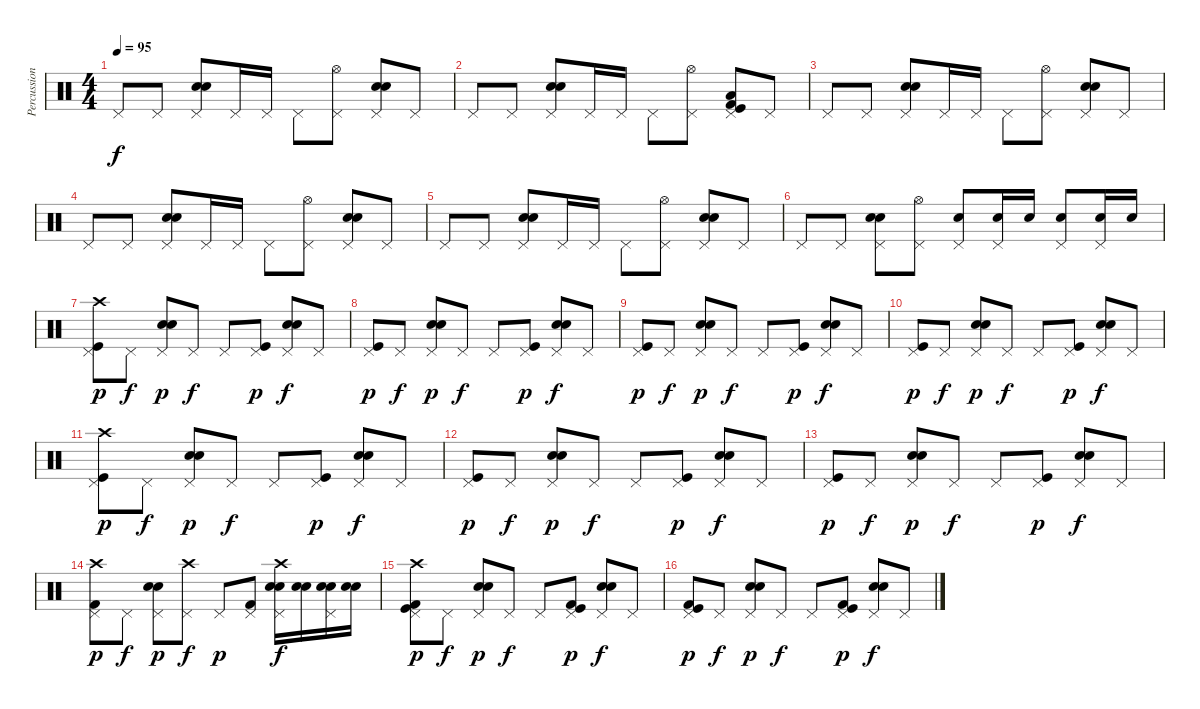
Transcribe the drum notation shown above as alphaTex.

\track ("Percussion (1)" "Percussion") {instrument percussion}
\staff {score}
\articulation defaults
\ts (4 4)
\tempo 95
\clef neutral
\ks c "Pedal Hi-Hat (hit)".8{dy f} "Pedal Hi-Hat (hit)".8
("Pedal Hi-Hat (hit)" "Snare (hit) 2" "Electric Snare (hit)").8 "Pedal Hi-Hat (hit)".16 "Pedal Hi-Hat (hit)".16 "Pedal Hi-Hat (hit)".8 ("Pedal Hi-Hat (hit)" "Hi-Hat (open)").8 ("Pedal Hi-Hat (hit)" "Snare (hit) 2" "Electric Snare (hit)").8 "Pedal Hi-Hat (hit)".8 |
"Pedal Hi-Hat (hit)".8 "Pedal Hi-Hat (hit)".8 ("Pedal Hi-Hat (hit)" "Snare (hit) 2" "Electric Snare (hit)").8 "Pedal Hi-Hat (hit)".16 "Pedal Hi-Hat (hit)".16 "Pedal Hi-Hat (hit)".8 ("Pedal Hi-Hat (hit)" "Hi-Hat (open)").8 ("Pedal Hi-Hat (hit)" "Kick (hit) 2" "Kick (hit)" "Low Floor Tom (hit)").8 "Pedal Hi-Hat (hit)".8 |
"Pedal Hi-Hat (hit)".8 "Pedal Hi-Hat (hit)".8 ("Pedal Hi-Hat (hit)" "Snare (hit) 2" "Electric Snare (hit)").8 "Pedal Hi-Hat (hit)".16 "Pedal Hi-Hat (hit)".16 "Pedal Hi-Hat (hit)".8 ("Pedal Hi-Hat (hit)" "Hi-Hat (open)").8 ("Pedal Hi-Hat (hit)" "Snare (hit) 2" "Electric Snare (hit)").8 "Pedal Hi-Hat (hit)".8 |
"Pedal Hi-Hat (hit)".8 "Pedal Hi-Hat (hit)".8 ("Pedal Hi-Hat (hit)" "Snare (hit) 2" "Electric Snare (hit)").8 "Pedal Hi-Hat (hit)".16 "Pedal Hi-Hat (hit)".16 "Pedal Hi-Hat (hit)".8 ("Pedal Hi-Hat (hit)" "Hi-Hat (open)").8 ("Pedal Hi-Hat (hit)" "Snare (hit) 2" "Electric Snare (hit)").8 "Pedal Hi-Hat (hit)".8 |
"Pedal Hi-Hat (hit)".8 "Pedal Hi-Hat (hit)".8 ("Pedal Hi-Hat (hit)" "Snare (hit) 2" "Electric Snare (hit)").8 "Pedal Hi-Hat (hit)".16 "Pedal Hi-Hat (hit)".16 "Pedal Hi-Hat (hit)".8 ("Pedal Hi-Hat (hit)" "Hi-Hat (open)").8 ("Pedal Hi-Hat (hit)" "Snare (hit) 2" "Electric Snare (hit)").8 "Pedal Hi-Hat (hit)".8 |
"Pedal Hi-Hat (hit)".8 "Pedal Hi-Hat (hit)".8 ("Pedal Hi-Hat (hit)" "Snare (hit) 2" "Electric Snare (hit)").8 ("Pedal Hi-Hat (hit)" "Hi-Hat (open)").8 ("Pedal Hi-Hat (hit)" "Electric Snare (hit)").8 ("Pedal Hi-Hat (hit)" "Snare (hit) 2").16 "Electric Snare (hit)".16 ("Pedal Hi-Hat (hit)" "Electric Snare (hit)").8 ("Pedal Hi-Hat (hit)" "Snare (hit) 2").16 "Snare (hit) 2".16 |
("Pedal Hi-Hat (hit)" "Kick (hit)" "Crash high (hit)").8{dy p} "Pedal Hi-Hat (hit)".8{dy f} ("Pedal Hi-Hat (hit)" "Snare (hit) 2" "Electric Snare (hit)").8{dy p} "Pedal Hi-Hat (hit)".8{dy f} "Pedal Hi-Hat (hit)".8 ("Pedal Hi-Hat (hit)" "Kick (hit)").8{dy p} ("Pedal Hi-Hat (hit)" "Snare (hit) 2" "Electric Snare (hit)").8{dy f} "Pedal Hi-Hat (hit)".8 |
("Pedal Hi-Hat (hit)" "Kick (hit)").8{dy p} "Pedal Hi-Hat (hit)".8{dy f} ("Pedal Hi-Hat (hit)" "Snare (hit) 2" "Electric Snare (hit)").8{dy p} "Pedal Hi-Hat (hit)".8{dy f} "Pedal Hi-Hat (hit)".8 ("Pedal Hi-Hat (hit)" "Kick (hit)").8{dy p} ("Pedal Hi-Hat (hit)" "Snare (hit) 2" "Electric Snare (hit)").8{dy f} "Pedal Hi-Hat (hit)".8 |
("Pedal Hi-Hat (hit)" "Kick (hit)").8{dy p} "Pedal Hi-Hat (hit)".8{dy f} ("Pedal Hi-Hat (hit)" "Snare (hit) 2" "Electric Snare (hit)").8{dy p} "Pedal Hi-Hat (hit)".8{dy f} "Pedal Hi-Hat (hit)".8 ("Pedal Hi-Hat (hit)" "Kick (hit)").8{dy p} ("Pedal Hi-Hat (hit)" "Snare (hit) 2" "Electric Snare (hit)").8{dy f} "Pedal Hi-Hat (hit)".8 |
("Pedal Hi-Hat (hit)" "Kick (hit)").8{dy p} "Pedal Hi-Hat (hit)".8{dy f} ("Pedal Hi-Hat (hit)" "Snare (hit) 2" "Electric Snare (hit)").8{dy p} "Pedal Hi-Hat (hit)".8{dy f} "Pedal Hi-Hat (hit)".8 ("Pedal Hi-Hat (hit)" "Kick (hit)").8{dy p} ("Pedal Hi-Hat (hit)" "Snare (hit) 2" "Electric Snare (hit)").8{dy f} "Pedal Hi-Hat (hit)".8 |
("Pedal Hi-Hat (hit)" "Kick (hit)" "Crash high (hit)").8{dy p} "Pedal Hi-Hat (hit)".8{dy f} ("Pedal Hi-Hat (hit)" "Snare (hit) 2" "Electric Snare (hit)").8{dy p} "Pedal Hi-Hat (hit)".8{dy f} "Pedal Hi-Hat (hit)".8 ("Pedal Hi-Hat (hit)" "Kick (hit)").8{dy p} ("Pedal Hi-Hat (hit)" "Snare (hit) 2" "Electric Snare (hit)").8{dy f} "Pedal Hi-Hat (hit)".8 |
("Pedal Hi-Hat (hit)" "Kick (hit)").8{dy p} "Pedal Hi-Hat (hit)".8{dy f} ("Pedal Hi-Hat (hit)" "Snare (hit) 2" "Electric Snare (hit)").8{dy p} "Pedal Hi-Hat (hit)".8{dy f} "Pedal Hi-Hat (hit)".8 ("Pedal Hi-Hat (hit)" "Kick (hit)").8{dy p} ("Pedal Hi-Hat (hit)" "Snare (hit) 2" "Electric Snare (hit)").8{dy f} "Pedal Hi-Hat (hit)".8 |
("Pedal Hi-Hat (hit)" "Kick (hit)").8{dy p} "Pedal Hi-Hat (hit)".8{dy f} ("Pedal Hi-Hat (hit)" "Snare (hit) 2" "Electric Snare (hit)").8{dy p} "Pedal Hi-Hat (hit)".8{dy f} "Pedal Hi-Hat (hit)".8 ("Pedal Hi-Hat (hit)" "Kick (hit)").8{dy p} ("Pedal Hi-Hat (hit)" "Snare (hit) 2" "Electric Snare (hit)").8{dy f} "Pedal Hi-Hat (hit)".8 |
("Pedal Hi-Hat (hit)" "Kick (hit) 2" "Crash high (hit)").8{dy p} "Pedal Hi-Hat (hit)".8{dy f} ("Pedal Hi-Hat (hit)" "Snare (hit) 2" "Electric Snare (hit)").8{dy p} ("Pedal Hi-Hat (hit)" "Crash high (hit)").8{dy f} "Pedal Hi-Hat (hit)".8{dy p} ("Pedal Hi-Hat (hit)" "Kick (hit) 2").8 ("Pedal Hi-Hat (hit)" "Snare (hit) 2" "Electric Snare (hit)" "Crash high (hit)").16{dy f} ("Snare (hit) 2" "Electric Snare (hit)").16 ("Pedal Hi-Hat (hit)" "Snare (hit) 2" "Electric Snare (hit)").16 ("Snare (hit) 2" "Electric Snare (hit)").16 |
("Pedal Hi-Hat (hit)" "Kick (hit)" "Kick (hit) 2" "Crash high (hit)").8{dy p} "Pedal Hi-Hat (hit)".8{dy f} ("Pedal Hi-Hat (hit)" "Snare (hit) 2" "Electric Snare (hit)").8{dy p} "Pedal Hi-Hat (hit)".8{dy f} "Pedal Hi-Hat (hit)".8 ("Pedal Hi-Hat (hit)" "Kick (hit)" "Kick (hit) 2").8{dy p} ("Pedal Hi-Hat (hit)" "Snare (hit) 2" "Electric Snare (hit)").8{dy f} "Pedal Hi-Hat (hit)".8 |
("Pedal Hi-Hat (hit)" "Kick (hit)" "Kick (hit) 2").8{dy p} "Pedal Hi-Hat (hit)".8{dy f} ("Pedal Hi-Hat (hit)" "Snare (hit) 2" "Electric Snare (hit)").8{dy p} "Pedal Hi-Hat (hit)".8{dy f} "Pedal Hi-Hat (hit)".8 ("Pedal Hi-Hat (hit)" "Kick (hit)" "Kick (hit) 2").8{dy p} ("Pedal Hi-Hat (hit)" "Snare (hit) 2" "Electric Snare (hit)").8{dy f} "Pedal Hi-Hat (hit)".8
